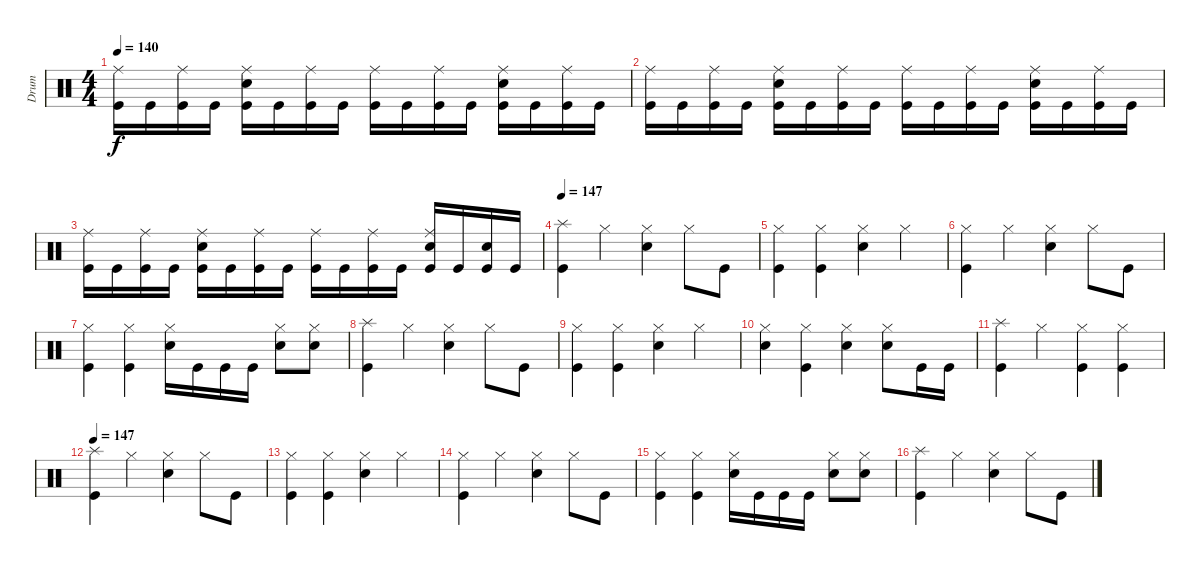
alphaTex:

\track ("Drum" "Drum") {instrument percussion}
\staff {score}
\articulation defaults
\ts (4 4)
\tempo 140
\clef neutral
\ks c
("Kick (hit)" "Ride (middle)").16{dy f} "Kick (hit)".16 ("Kick (hit)" "Ride (middle)").16 "Kick (hit)".16 ("Kick (hit)" "Electric Snare (hit)" "Ride (middle)").16 "Kick (hit)".16 ("Kick (hit)" "Ride (middle)").16 "Kick (hit)".16 ("Kick (hit)" "Ride (middle)").16 "Kick (hit)".16 ("Kick (hit)" "Ride (middle)").16 "Kick (hit)".16 ("Kick (hit)" "Electric Snare (hit)" "Ride (middle)").16 "Kick (hit)".16 ("Kick (hit)" "Ride (middle)").16 "Kick (hit)".16 |
("Kick (hit)" "Ride (middle)").16 "Kick (hit)".16 ("Kick (hit)" "Ride (middle)").16 "Kick (hit)".16 ("Kick (hit)" "Electric Snare (hit)" "Ride (middle)").16 "Kick (hit)".16 ("Kick (hit)" "Ride (middle)").16 "Kick (hit)".16 ("Kick (hit)" "Ride (middle)").16 "Kick (hit)".16 ("Kick (hit)" "Ride (middle)").16 "Kick (hit)".16 ("Kick (hit)" "Electric Snare (hit)" "Ride (middle)").16 "Kick (hit)".16 ("Kick (hit)" "Ride (middle)").16 "Kick (hit)".16 |
("Kick (hit)" "Ride (middle)").16 "Kick (hit)".16 ("Kick (hit)" "Ride (middle)").16 "Kick (hit)".16 ("Kick (hit)" "Electric Snare (hit)" "Ride (middle)").16 "Kick (hit)".16 ("Kick (hit)" "Ride (middle)").16 "Kick (hit)".16 ("Kick (hit)" "Ride (middle)").16 "Kick (hit)".16 ("Kick (hit)" "Ride (middle)").16 "Kick (hit)".16 ("Kick (hit)" "Electric Snare (hit)" "Ride (middle)").16 "Kick (hit)".16 ("Kick (hit)" "Electric Snare (hit)").16 "Kick (hit)".16 |
\tempo 147
("Kick (hit)" "Splash (hit)").4 "Hi-Hat (closed)".4 ("Electric Snare (hit)" "Hi-Hat (closed)").4 "Hi-Hat (closed)".8 "Kick (hit)".8 |
("Kick (hit)" "Hi-Hat (closed)").4 ("Kick (hit)" "Hi-Hat (closed)").4 ("Electric Snare (hit)" "Hi-Hat (closed)").4 "Hi-Hat (closed)".4 |
("Kick (hit)" "Hi-Hat (closed)").4 "Hi-Hat (closed)".4 ("Electric Snare (hit)" "Hi-Hat (closed)").4 "Hi-Hat (closed)".8 "Kick (hit)".8 |
("Kick (hit)" "Hi-Hat (closed)").4 ("Kick (hit)" "Hi-Hat (closed)").4 ("Electric Snare (hit)" "Hi-Hat (closed)").16 "Kick (hit)".16 "Kick (hit)".16 "Kick (hit)".16 ("Electric Snare (hit)" "Hi-Hat (closed)").8 ("Electric Snare (hit)" "Hi-Hat (closed)").8 |
("Kick (hit)" "Splash (hit)").4 "Hi-Hat (closed)".4 ("Electric Snare (hit)" "Hi-Hat (closed)").4 "Hi-Hat (closed)".8 "Kick (hit)".8 |
("Kick (hit)" "Hi-Hat (closed)").4 ("Kick (hit)" "Hi-Hat (closed)").4 ("Electric Snare (hit)" "Hi-Hat (closed)").4 "Hi-Hat (closed)".4 |
("Electric Snare (hit)" "Hi-Hat (closed)").4 ("Kick (hit)" "Hi-Hat (closed)").4 ("Electric Snare (hit)" "Hi-Hat (closed)").4 ("Electric Snare (hit)" "Hi-Hat (closed)").8 "Kick (hit)".16 "Kick (hit)".16 |
("Kick (hit)" "Splash (hit)").4 "Hi-Hat (closed)".4 ("Kick (hit)" "Hi-Hat (closed)").4 ("Kick (hit)" "Hi-Hat (closed)").4 |
\tempo 147
("Kick (hit)" "Splash (hit)").4 "Hi-Hat (closed)".4 ("Electric Snare (hit)" "Hi-Hat (closed)").4 "Hi-Hat (closed)".8 "Kick (hit)".8 |
("Kick (hit)" "Hi-Hat (closed)").4 ("Kick (hit)" "Hi-Hat (closed)").4 ("Electric Snare (hit)" "Hi-Hat (closed)").4 "Hi-Hat (closed)".4 |
("Kick (hit)" "Hi-Hat (closed)").4 "Hi-Hat (closed)".4 ("Electric Snare (hit)" "Hi-Hat (closed)").4 "Hi-Hat (closed)".8 "Kick (hit)".8 |
("Kick (hit)" "Hi-Hat (closed)").4 ("Kick (hit)" "Hi-Hat (closed)").4 ("Electric Snare (hit)" "Hi-Hat (closed)").16 "Kick (hit)".16 "Kick (hit)".16 "Kick (hit)".16 ("Electric Snare (hit)" "Hi-Hat (closed)").8 ("Electric Snare (hit)" "Hi-Hat (closed)").8 |
("Kick (hit)" "Splash (hit)").4 "Hi-Hat (closed)".4 ("Electric Snare (hit)" "Hi-Hat (closed)").4 "Hi-Hat (closed)".8 "Kick (hit)".8
